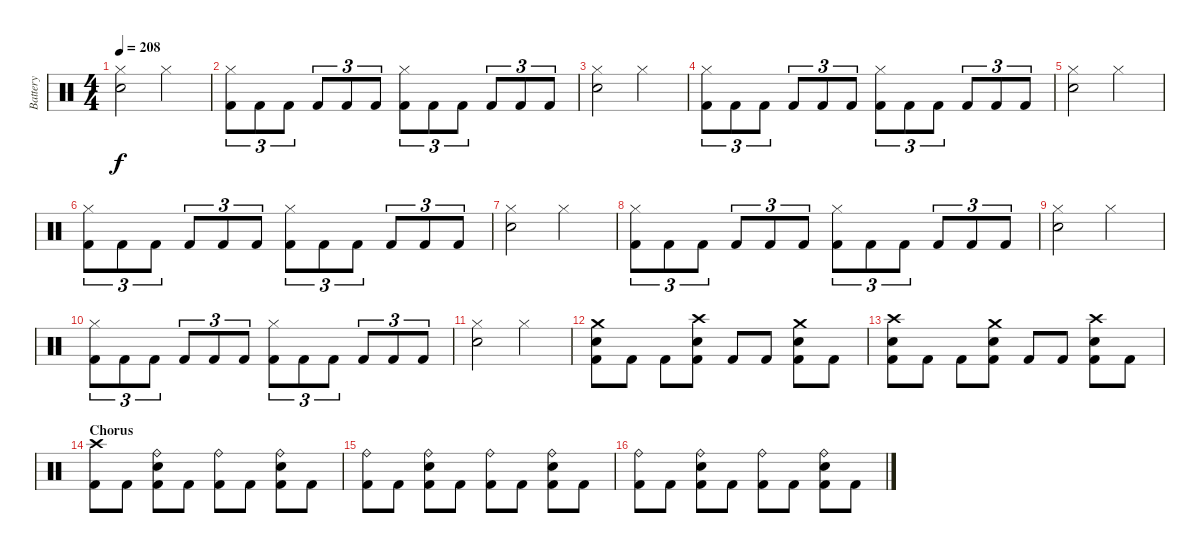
\track ("Battery" "Battery") {instrument percussion}
\staff {score}
\articulation defaults
\ts (4 4)
\tempo 208
\clef neutral
\ks c
("Hi-Hat (closed)" "Electric Snare (hit)").2{dy f} "Hi-Hat (closed)".2 |
("Hi-Hat (closed)" "Kick (hit) 2").8{tu (3 2)} "Kick (hit) 2".8{tu (3 2)} "Kick (hit) 2".8{tu (3 2)} "Kick (hit) 2".8{tu (3 2)} "Kick (hit) 2".8{tu (3 2)} "Kick (hit) 2".8{tu (3 2)} ("Hi-Hat (closed)" "Kick (hit) 2").8{tu (3 2)} "Kick (hit) 2".8{tu (3 2)} "Kick (hit) 2".8{tu (3 2)} "Kick (hit) 2".8{tu (3 2)} "Kick (hit) 2".8{tu (3 2)} "Kick (hit) 2".8{tu (3 2)} |
("Hi-Hat (closed)" "Electric Snare (hit)").2 "Hi-Hat (closed)".2 |
("Hi-Hat (closed)" "Kick (hit) 2").8{tu (3 2)} "Kick (hit) 2".8{tu (3 2)} "Kick (hit) 2".8{tu (3 2)} "Kick (hit) 2".8{tu (3 2)} "Kick (hit) 2".8{tu (3 2)} "Kick (hit) 2".8{tu (3 2)} ("Hi-Hat (closed)" "Kick (hit) 2").8{tu (3 2)} "Kick (hit) 2".8{tu (3 2)} "Kick (hit) 2".8{tu (3 2)} "Kick (hit) 2".8{tu (3 2)} "Kick (hit) 2".8{tu (3 2)} "Kick (hit) 2".8{tu (3 2)} |
("Hi-Hat (closed)" "Electric Snare (hit)").2 "Hi-Hat (closed)".2 |
("Hi-Hat (closed)" "Kick (hit) 2").8{tu (3 2)} "Kick (hit) 2".8{tu (3 2)} "Kick (hit) 2".8{tu (3 2)} "Kick (hit) 2".8{tu (3 2)} "Kick (hit) 2".8{tu (3 2)} "Kick (hit) 2".8{tu (3 2)} ("Hi-Hat (closed)" "Kick (hit) 2").8{tu (3 2)} "Kick (hit) 2".8{tu (3 2)} "Kick (hit) 2".8{tu (3 2)} "Kick (hit) 2".8{tu (3 2)} "Kick (hit) 2".8{tu (3 2)} "Kick (hit) 2".8{tu (3 2)} |
("Hi-Hat (closed)" "Electric Snare (hit)").2 "Hi-Hat (closed)".2 |
("Hi-Hat (closed)" "Kick (hit) 2").8{tu (3 2)} "Kick (hit) 2".8{tu (3 2)} "Kick (hit) 2".8{tu (3 2)} "Kick (hit) 2".8{tu (3 2)} "Kick (hit) 2".8{tu (3 2)} "Kick (hit) 2".8{tu (3 2)} ("Hi-Hat (closed)" "Kick (hit) 2").8{tu (3 2)} "Kick (hit) 2".8{tu (3 2)} "Kick (hit) 2".8{tu (3 2)} "Kick (hit) 2".8{tu (3 2)} "Kick (hit) 2".8{tu (3 2)} "Kick (hit) 2".8{tu (3 2)} |
("Hi-Hat (closed)" "Electric Snare (hit)").2 "Hi-Hat (closed)".2 |
("Hi-Hat (closed)" "Kick (hit) 2").8{tu (3 2)} "Kick (hit) 2".8{tu (3 2)} "Kick (hit) 2".8{tu (3 2)} "Kick (hit) 2".8{tu (3 2)} "Kick (hit) 2".8{tu (3 2)} "Kick (hit) 2".8{tu (3 2)} ("Hi-Hat (closed)" "Kick (hit) 2").8{tu (3 2)} "Kick (hit) 2".8{tu (3 2)} "Kick (hit) 2".8{tu (3 2)} "Kick (hit) 2".8{tu (3 2)} "Kick (hit) 2".8{tu (3 2)} "Kick (hit) 2".8{tu (3 2)} |
("Hi-Hat (closed)" "Electric Snare (hit)").2 "Hi-Hat (closed)".2 |
("Crash medium (hit)" "Electric Snare (hit)" "Kick (hit) 2").8 "Kick (hit) 2".8 "Kick (hit) 2".8 ("Crash high (hit)" "Electric Snare (hit)" "Kick (hit) 2").8 "Kick (hit) 2".8 "Kick (hit) 2".8 ("Crash medium (hit)" "Electric Snare (hit)" "Kick (hit) 2").8 "Kick (hit) 2".8 |
("Crash high (hit)" "Electric Snare (hit)" "Kick (hit) 2").8 "Kick (hit) 2".8 "Kick (hit) 2".8 ("Crash medium (hit)" "Electric Snare (hit)" "Kick (hit) 2").8 "Kick (hit) 2".8 "Kick (hit) 2".8 ("Crash high (hit)" "Electric Snare (hit)" "Kick (hit) 2").8 "Kick (hit) 2".8 |
\section ("" "Chorus")
("Crash high (hit)" "Kick (hit) 2").8 "Kick (hit) 2".8 ("Ride (bell)" "Electric Snare (hit)" "Kick (hit) 2").8 "Kick (hit) 2".8 ("Ride (bell)" "Kick (hit) 2").8 "Kick (hit) 2".8 ("Ride (bell)" "Electric Snare (hit)" "Kick (hit) 2").8 "Kick (hit) 2".8 |
("Ride (bell)" "Kick (hit) 2").8 "Kick (hit) 2".8 ("Ride (bell)" "Electric Snare (hit)" "Kick (hit) 2").8 "Kick (hit) 2".8 ("Ride (bell)" "Kick (hit) 2").8 "Kick (hit) 2".8 ("Ride (bell)" "Electric Snare (hit)" "Kick (hit) 2").8 "Kick (hit) 2".8 |
("Ride (bell)" "Kick (hit) 2").8 "Kick (hit) 2".8 ("Ride (bell)" "Electric Snare (hit)" "Kick (hit) 2").8 "Kick (hit) 2".8 ("Ride (bell)" "Kick (hit) 2").8 "Kick (hit) 2".8 ("Ride (bell)" "Electric Snare (hit)" "Kick (hit) 2").8 "Kick (hit) 2".8
